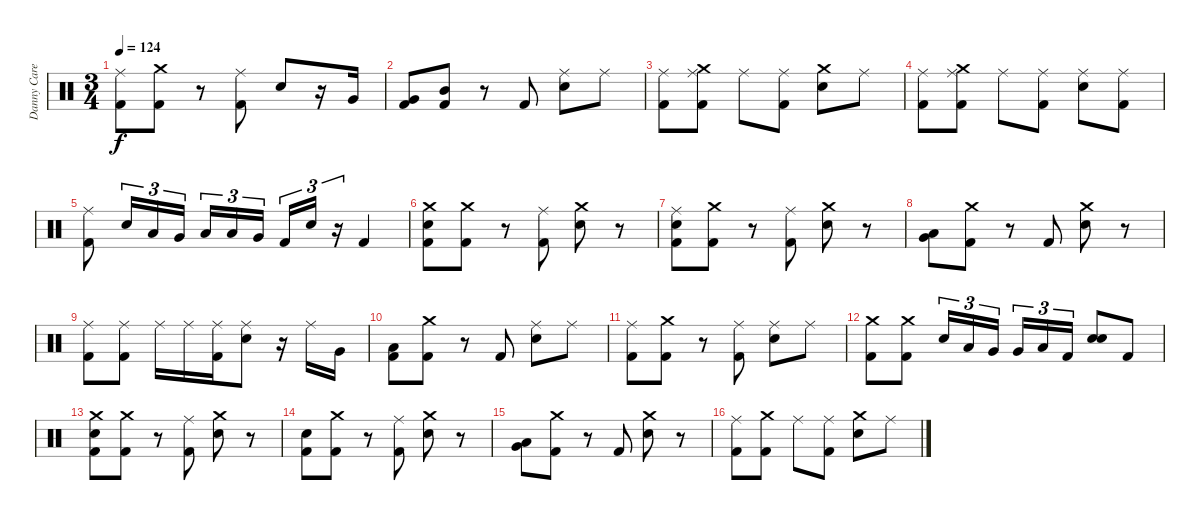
\track ("Danny Carey" "Danny Care") {instrument percussion}
\staff {score}
\articulation defaults
\ts (3 4)
\tempo 124
\clef neutral
\ks c
("Ride (middle)" "Kick (hit) 2").8{dy f} ("Crash medium (hit)" "Kick (hit) 2").8 r.8 ("Ride (middle)" "Kick (hit) 2").8 "Electric Snare (hit)".8 r.16 "Very Low Tom (hit)".16 |
("Very Low Tom (hit)" "Kick (hit) 2").8 ("Mid Tom (hit)" "Kick (hit) 2").8 r.8 "Kick (hit) 2".8 ("Ride (middle)" "Electric Snare (hit)").8 "Ride (middle)".8 |
("Ride (middle)" "Kick (hit) 2").8 ("Crash medium (hit)" "Ride (middle)" "Kick (hit) 2").8 "Ride (middle)".8 ("Ride (middle)" "Kick (hit) 2").8 ("Crash medium (hit)" "Electric Snare (hit)").8 "Ride (middle)".8 |
("Ride (middle)" "Kick (hit) 2").8 ("Crash medium (hit)" "Ride (middle)" "Kick (hit) 2").8 "Ride (middle)".8 ("Ride (middle)" "Kick (hit) 2").8 ("Ride (middle)" "Electric Snare (hit)").8 ("Ride (middle)" "Kick (hit) 2").8 |
("Ride (middle)" "Kick (hit) 2").8 "Electric Snare (hit)".16{tu (3 2)} "Low Tom (hit)".16{tu (3 2)} "Very Low Tom (hit)".16{tu (3 2)} "Low Floor Tom (hit)".16{tu (3 2)} "Low Floor Tom (hit)".16{tu (3 2)} "Very Low Tom (hit)".16{tu (3 2)} "Kick (hit) 2".16{tu (3 2)} "Electric Snare (hit)".16{tu (3 2)} r.16{tu (3 2)} "Kick (hit) 2".4 |
("Crash medium (hit)" "Electric Snare (hit)" "Kick (hit) 2").8 ("Crash medium (hit)" "Kick (hit) 2").8 r.8 ("Ride (middle)" "Kick (hit) 2").8 ("Crash medium (hit)" "Electric Snare (hit)").8 r.8 |
("Ride (middle)" "Electric Snare (hit)" "Kick (hit) 2").8 ("Crash medium (hit)" "Kick (hit) 2").8 r.8 ("Ride (middle)" "Kick (hit) 2").8 ("Crash medium (hit)" "Electric Snare (hit)").8 r.8 |
("Very Low Tom (hit)" "Low Floor Tom (hit)").8 ("Crash medium (hit)" "Kick (hit) 2").8 r.8 "Kick (hit) 2".8 ("Crash medium (hit)" "Electric Snare (hit)").8 r.8 |
("Ride (middle)" "Kick (hit) 2").8 ("Ride (middle)" "Kick (hit) 2").8 "Ride (middle)".16 "Ride (middle)".16 ("Ride (middle)" "Kick (hit) 2").16 ("Ride (middle)" "Electric Snare (hit)").8 r.16 "Ride (middle)".16 "Very Low Tom (hit)".16 |
("Low Floor Tom (hit)" "Kick (hit) 2").8 ("Crash medium (hit)" "Kick (hit) 2").8 r.8 "Kick (hit) 2".8 ("Ride (middle)" "Electric Snare (hit)").8 "Ride (middle)".8 |
("Ride (middle)" "Kick (hit) 2").8 ("Crash medium (hit)" "Kick (hit) 2").8 r.8 ("Ride (middle)" "Kick (hit) 2").8 ("Ride (middle)" "Electric Snare (hit)").8 "Ride (middle)".8 |
("Crash medium (hit)" "Kick (hit) 2").8 ("Crash medium (hit)" "Kick (hit) 2").8 "Electric Snare (hit)".16{tu (3 2)} "Low Tom (hit)".16{tu (3 2)} "Very Low Tom (hit)".16{tu (3 2)} "Very Low Tom (hit)".16{tu (3 2)} "Low Floor Tom (hit)".16{tu (3 2)} "Kick (hit) 2".16{tu (3 2)} ("Electric Snare (hit)" "Electric Snare (hit)").8 "Kick (hit) 2".8 |
("Crash medium (hit)" "Electric Snare (hit)" "Kick (hit) 2").8 ("Crash medium (hit)" "Kick (hit) 2").8 r.8 ("Ride (middle)" "Kick (hit) 2").8 ("Crash medium (hit)" "Electric Snare (hit)").8 r.8 |
("Electric Snare (hit)" "Kick (hit) 2").8 ("Crash medium (hit)" "Kick (hit) 2").8 r.8 ("Ride (middle)" "Kick (hit) 2").8 ("Crash medium (hit)" "Electric Snare (hit)").8 r.8 |
("Very Low Tom (hit)" "Low Floor Tom (hit)").8 ("Crash medium (hit)" "Kick (hit) 2").8 r.8 "Kick (hit) 2".8 ("Crash medium (hit)" "Electric Snare (hit)").8 r.8 |
("Ride (middle)" "Kick (hit) 2").8 ("Crash medium (hit)" "Kick (hit) 2").8 "Ride (middle)".8 ("Ride (middle)" "Kick (hit) 2").8 ("Crash medium (hit)" "Electric Snare (hit)").8 "Ride (middle)".8
